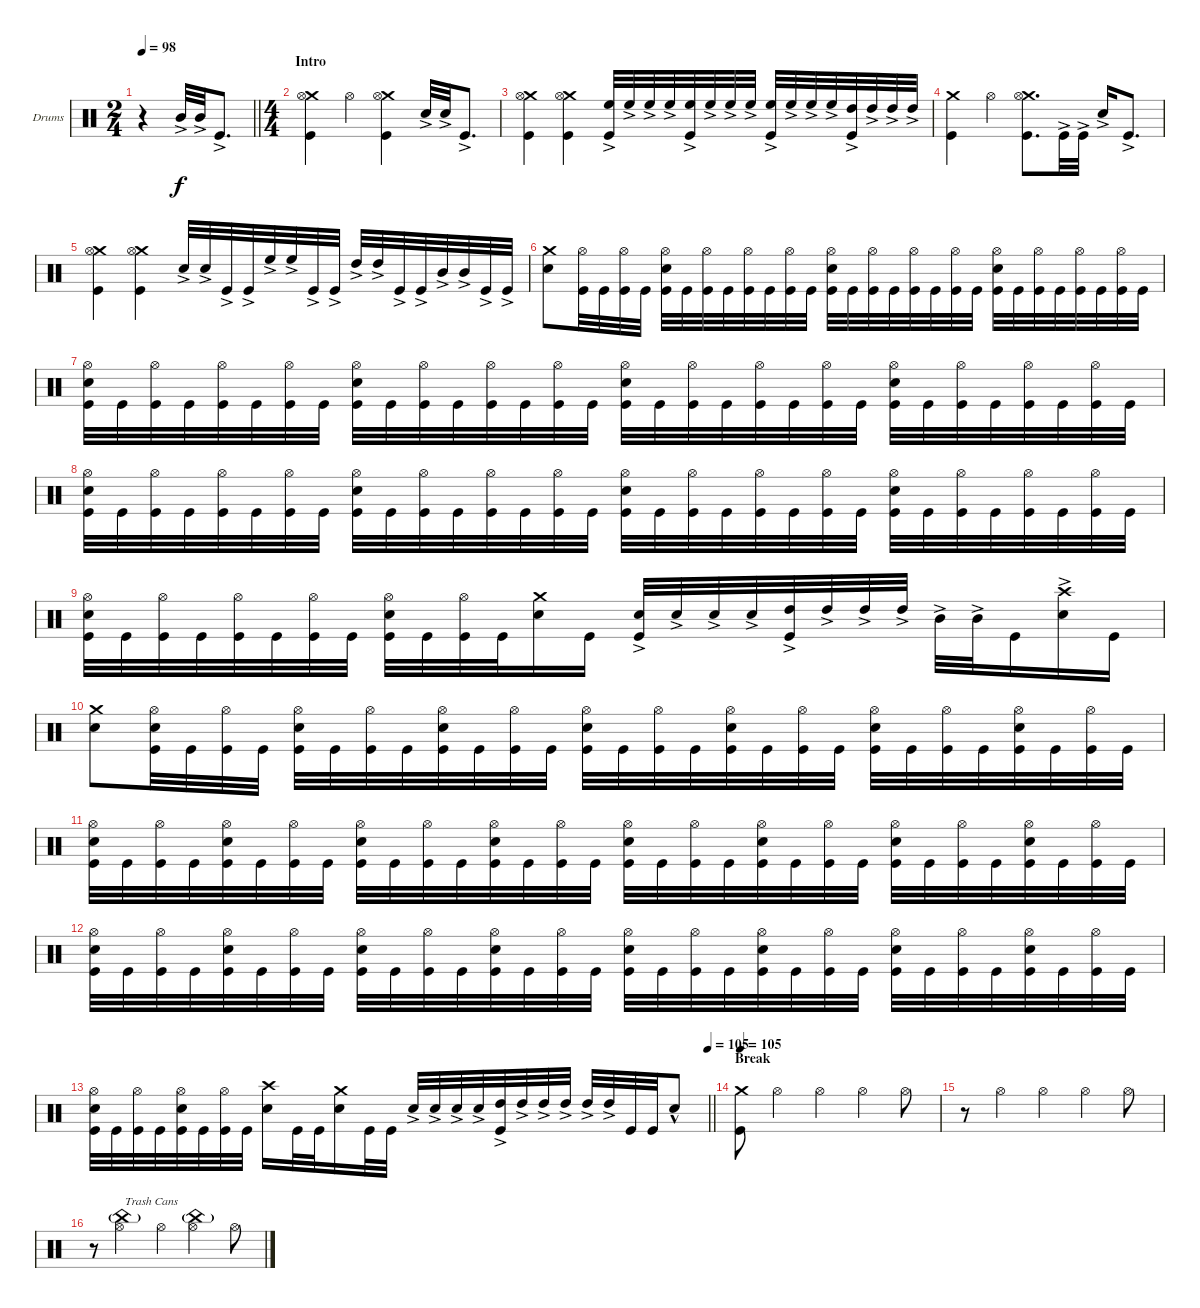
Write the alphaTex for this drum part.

\bracketExtendMode groupsimilarinstruments
\firstSystemTrackNameOrientation horizontal
\otherSystemsTrackNameOrientation horizontal
\track ("Drumkit" "Drums") {instrument percussion}
\staff {score}
\articulation defaults
\ts (2 4)
\beaming (8 2 2)
\tempo 98
\clef neutral
\barLineRight lightlight
\ks c
r.4{dy f} "Mid Tom (hit)"{ac}.32 "Mid Tom (hit)"{ac}.32 "Kick (hit)"{ac}.8{d} |
\ts (4 4)
\beaming (8 2 2 2 2)
\section ("" "Intro")
("Crash medium (hit)" "Hi-Hat (open)" "Kick (hit)").4 "Hi-Hat (open)".4 ("Crash medium (hit)" "Hi-Hat (open)" "Kick (hit)").4 "Snare (hit) 2"{ac}.32 "Snare (hit) 2"{ac}.32 "Kick (hit)"{ac}.8{d} |
("Crash medium (hit)" "Hi-Hat (open)" "Kick (hit)").4 ("Crash medium (hit)" "Hi-Hat (open)" "Kick (hit)").4 ("High Floor Tom (hit)"{ac} "Kick (hit)").32 "High Floor Tom (hit)"{ac}.32 "High Floor Tom (hit)"{ac}.32 "High Floor Tom (hit)"{ac}.32 ("High Floor Tom (hit)"{ac} "Kick (hit)").32 "High Floor Tom (hit)"{ac}.32 "High Floor Tom (hit)"{ac}.32 "High Floor Tom (hit)"{ac}.32 ("High Floor Tom (hit)"{ac} "Kick (hit)").32 "High Floor Tom (hit)"{ac}.32 "High Floor Tom (hit)"{ac}.32 "High Floor Tom (hit)"{ac}.32 ("High Tom (hit)"{ac} "Kick (hit)").32 "High Tom (hit)"{ac}.32 "High Tom (hit)"{ac}.32 "High Tom (hit)"{ac}.32 |
("Crash medium (hit)" "Kick (hit)").4 "Hi-Hat (open)".4 ("Crash medium (hit)" "Hi-Hat (open)" "Kick (hit)").8{d} "Kick (hit)"{ac}.32 "Kick (hit)"{ac}.32 "Snare (hit) 2"{ac}.16 "Kick (hit)"{ac}.8{d} |
("Crash medium (hit)" "Hi-Hat (open)" "Kick (hit)").4 ("Crash medium (hit)" "Hi-Hat (open)" "Kick (hit)").4 "Snare (hit) 2"{ac}.32 "Snare (hit) 2"{ac}.32 "Kick (hit)"{ac}.32 "Kick (hit)"{ac}.32 "High Floor Tom (hit)"{ac}.32 "High Floor Tom (hit)"{ac}.32 "Kick (hit)"{ac}.32 "Kick (hit)"{ac}.32 "High Tom (hit)"{ac}.32 "High Tom (hit)"{ac}.32 "Kick (hit)"{ac}.32 "Kick (hit)"{ac}.32 "Mid Tom (hit)"{ac}.32 "Mid Tom (hit)"{ac}.32 "Kick (hit)"{ac}.32 "Kick (hit)"{ac}.32 |
("Crash medium (hit)" "Snare (hit) 2").8 ("Hi-Hat (open)" "Kick (hit)").32 "Kick (hit)".32 ("Hi-Hat (open)" "Kick (hit)").32 "Kick (hit)".32 ("Hi-Hat (open)" "Snare (hit) 2" "Kick (hit)").32 "Kick (hit)".32 ("Hi-Hat (open)" "Kick (hit)").32 "Kick (hit)".32 ("Hi-Hat (open)" "Kick (hit)").32 "Kick (hit)".32 ("Hi-Hat (open)" "Kick (hit)").32 "Kick (hit)".32 ("Hi-Hat (open)" "Snare (hit) 2" "Kick (hit)").32 "Kick (hit)".32 ("Hi-Hat (open)" "Kick (hit)").32 "Kick (hit)".32 ("Hi-Hat (open)" "Kick (hit)").32 "Kick (hit)".32 ("Hi-Hat (open)" "Kick (hit)").32 "Kick (hit)".32 ("Hi-Hat (open)" "Snare (hit) 2" "Kick (hit)").32 "Kick (hit)".32 ("Hi-Hat (open)" "Kick (hit)").32 "Kick (hit)".32 ("Hi-Hat (open)" "Kick (hit)").32 "Kick (hit)".32 ("Hi-Hat (open)" "Kick (hit)").32 "Kick (hit)".32 |
("Hi-Hat (open)" "Snare (hit) 2" "Kick (hit)").32 "Kick (hit)".32 ("Hi-Hat (open)" "Kick (hit)").32 "Kick (hit)".32 ("Hi-Hat (open)" "Kick (hit)").32 "Kick (hit)".32 ("Hi-Hat (open)" "Kick (hit)").32 "Kick (hit)".32 ("Hi-Hat (open)" "Snare (hit) 2" "Kick (hit)").32 "Kick (hit)".32 ("Hi-Hat (open)" "Kick (hit)").32 "Kick (hit)".32 ("Hi-Hat (open)" "Kick (hit)").32 "Kick (hit)".32 ("Hi-Hat (open)" "Kick (hit)").32 "Kick (hit)".32 ("Hi-Hat (open)" "Snare (hit) 2" "Kick (hit)").32 "Kick (hit)".32 ("Hi-Hat (open)" "Kick (hit)").32 "Kick (hit)".32 ("Hi-Hat (open)" "Kick (hit)").32 "Kick (hit)".32 ("Hi-Hat (open)" "Kick (hit)").32 "Kick (hit)".32 ("Hi-Hat (open)" "Snare (hit) 2" "Kick (hit)").32 "Kick (hit)".32 ("Hi-Hat (open)" "Kick (hit)").32 "Kick (hit)".32 ("Hi-Hat (open)" "Kick (hit)").32 "Kick (hit)".32 ("Hi-Hat (open)" "Kick (hit)").32 "Kick (hit)".32 |
("Hi-Hat (open)" "Snare (hit) 2" "Kick (hit)").32 "Kick (hit)".32 ("Hi-Hat (open)" "Kick (hit)").32 "Kick (hit)".32 ("Hi-Hat (open)" "Kick (hit)").32 "Kick (hit)".32 ("Hi-Hat (open)" "Kick (hit)").32 "Kick (hit)".32 ("Hi-Hat (open)" "Snare (hit) 2" "Kick (hit)").32 "Kick (hit)".32 ("Hi-Hat (open)" "Kick (hit)").32 "Kick (hit)".32 ("Hi-Hat (open)" "Kick (hit)").32 "Kick (hit)".32 ("Hi-Hat (open)" "Kick (hit)").32 "Kick (hit)".32 ("Hi-Hat (open)" "Snare (hit) 2" "Kick (hit)").32 "Kick (hit)".32 ("Hi-Hat (open)" "Kick (hit)").32 "Kick (hit)".32 ("Hi-Hat (open)" "Kick (hit)").32 "Kick (hit)".32 ("Hi-Hat (open)" "Kick (hit)").32 "Kick (hit)".32 ("Hi-Hat (open)" "Snare (hit) 2" "Kick (hit)").32 "Kick (hit)".32 ("Hi-Hat (open)" "Kick (hit)").32 "Kick (hit)".32 ("Hi-Hat (open)" "Kick (hit)").32 "Kick (hit)".32 ("Hi-Hat (open)" "Kick (hit)").32 "Kick (hit)".32 |
("Hi-Hat (open)" "Snare (hit) 2" "Kick (hit)").32 "Kick (hit)".32 ("Hi-Hat (open)" "Kick (hit)").32 "Kick (hit)".32 ("Hi-Hat (open)" "Kick (hit)").32 "Kick (hit)".32 ("Hi-Hat (open)" "Kick (hit)").32 "Kick (hit)".32 ("Hi-Hat (open)" "Snare (hit) 2" "Kick (hit)").32 "Kick (hit)".32 ("Hi-Hat (open)" "Kick (hit)").32 "Kick (hit)".32 ("Crash medium (hit)" "Snare (hit) 2").16 "Kick (hit)".16 ("Snare (hit) 2"{ac} "Kick (hit)").32 "Snare (hit) 2"{ac}.32 "Snare (hit) 2"{ac}.32 "Snare (hit) 2"{ac}.32 ("High Tom (hit)"{ac} "Kick (hit)").32 "High Tom (hit)"{ac}.32 "High Tom (hit)"{ac}.32 "High Tom (hit)"{ac}.32 "Mid Tom (hit)"{ac}.32 "Mid Tom (hit)"{ac}.32 "Kick (hit)".16 ("Crash high (hit)" "Snare (hit) 2"{ac}).16 "Kick (hit)".16 |
("Crash medium (hit)" "Snare (hit) 2").8 ("Hi-Hat (open)" "Snare (hit) 2" "Kick (hit)").32 "Kick (hit)".32 ("Hi-Hat (open)" "Kick (hit)").32 "Kick (hit)".32 ("Hi-Hat (open)" "Snare (hit) 2" "Kick (hit)").32 "Kick (hit)".32 ("Hi-Hat (open)" "Kick (hit)").32 "Kick (hit)".32 ("Hi-Hat (open)" "Snare (hit) 2" "Kick (hit)").32 "Kick (hit)".32 ("Hi-Hat (open)" "Kick (hit)").32 "Kick (hit)".32 ("Hi-Hat (open)" "Snare (hit) 2" "Kick (hit)").32 "Kick (hit)".32 ("Hi-Hat (open)" "Kick (hit)").32 "Kick (hit)".32 ("Hi-Hat (open)" "Snare (hit) 2" "Kick (hit)").32 "Kick (hit)".32 ("Hi-Hat (open)" "Kick (hit)").32 "Kick (hit)".32 ("Hi-Hat (open)" "Snare (hit) 2" "Kick (hit)").32 "Kick (hit)".32 ("Hi-Hat (open)" "Kick (hit)").32 "Kick (hit)".32 ("Hi-Hat (open)" "Snare (hit) 2" "Kick (hit)").32 "Kick (hit)".32 ("Hi-Hat (open)" "Kick (hit)").32 "Kick (hit)".32 |
("Hi-Hat (open)" "Snare (hit) 2" "Kick (hit)").32 "Kick (hit)".32 ("Hi-Hat (open)" "Kick (hit)").32 "Kick (hit)".32 ("Hi-Hat (open)" "Snare (hit) 2" "Kick (hit)").32 "Kick (hit)".32 ("Hi-Hat (open)" "Kick (hit)").32 "Kick (hit)".32 ("Hi-Hat (open)" "Snare (hit) 2" "Kick (hit)").32 "Kick (hit)".32 ("Hi-Hat (open)" "Kick (hit)").32 "Kick (hit)".32 ("Hi-Hat (open)" "Snare (hit) 2" "Kick (hit)").32 "Kick (hit)".32 ("Hi-Hat (open)" "Kick (hit)").32 "Kick (hit)".32 ("Hi-Hat (open)" "Snare (hit) 2" "Kick (hit)").32 "Kick (hit)".32 ("Hi-Hat (open)" "Kick (hit)").32 "Kick (hit)".32 ("Hi-Hat (open)" "Snare (hit) 2" "Kick (hit)").32 "Kick (hit)".32 ("Hi-Hat (open)" "Kick (hit)").32 "Kick (hit)".32 ("Hi-Hat (open)" "Snare (hit) 2" "Kick (hit)").32 "Kick (hit)".32 ("Hi-Hat (open)" "Kick (hit)").32 "Kick (hit)".32 ("Hi-Hat (open)" "Snare (hit) 2" "Kick (hit)").32 "Kick (hit)".32 ("Hi-Hat (open)" "Kick (hit)").32 "Kick (hit)".32 |
("Hi-Hat (open)" "Snare (hit) 2" "Kick (hit)").32 "Kick (hit)".32 ("Hi-Hat (open)" "Kick (hit)").32 "Kick (hit)".32 ("Hi-Hat (open)" "Snare (hit) 2" "Kick (hit)").32 "Kick (hit)".32 ("Hi-Hat (open)" "Kick (hit)").32 "Kick (hit)".32 ("Hi-Hat (open)" "Snare (hit) 2" "Kick (hit)").32 "Kick (hit)".32 ("Hi-Hat (open)" "Kick (hit)").32 "Kick (hit)".32 ("Hi-Hat (open)" "Snare (hit) 2" "Kick (hit)").32 "Kick (hit)".32 ("Hi-Hat (open)" "Kick (hit)").32 "Kick (hit)".32 ("Hi-Hat (open)" "Snare (hit) 2" "Kick (hit)").32 "Kick (hit)".32 ("Hi-Hat (open)" "Kick (hit)").32 "Kick (hit)".32 ("Hi-Hat (open)" "Snare (hit) 2" "Kick (hit)").32 "Kick (hit)".32 ("Hi-Hat (open)" "Kick (hit)").32 "Kick (hit)".32 ("Hi-Hat (open)" "Snare (hit) 2" "Kick (hit)").32 "Kick (hit)".32 ("Hi-Hat (open)" "Kick (hit)").32 "Kick (hit)".32 ("Hi-Hat (open)" "Snare (hit) 2" "Kick (hit)").32 "Kick (hit)".32 ("Hi-Hat (open)" "Kick (hit)").32 "Kick (hit)".32 |
\tempo (105 1)
\barLineRight lightlight
("Hi-Hat (open)" "Snare (hit) 2" "Kick (hit)").32 "Kick (hit)".32 ("Hi-Hat (open)" "Kick (hit)").32 "Kick (hit)".32 ("Hi-Hat (open)" "Snare (hit) 2" "Kick (hit)").32 "Kick (hit)".32 ("Hi-Hat (open)" "Kick (hit)").32 "Kick (hit)".32 ("Crash high (hit)" "Snare (hit) 2").16 "Kick (hit)".32 "Kick (hit)".32 ("Crash medium (hit)" "Snare (hit) 2").16 "Kick (hit)".32 "Kick (hit)".32 "Snare (hit) 2"{ac}.32 "Snare (hit) 2"{ac}.32 "Snare (hit) 2"{ac}.32 "Snare (hit) 2"{ac}.32 ("High Tom (hit)"{ac} "Kick (hit)").32 "High Tom (hit)"{ac}.32 "High Tom (hit)"{ac}.32 "High Tom (hit)"{ac}.32 "High Tom (hit)"{ac}.32 "High Tom (hit)"{ac}.32 "Kick (hit)".32 "Kick (hit)".32 "Snare (hit) 2"{hac}.8 |
\section ("" "Break")
\tempo 105
("Crash medium (hit)" "Kick (hit)").8 "Hi-Hat (open)".4 "Hi-Hat (open)".4 "Hi-Hat (open)".4 "Hi-Hat (open)".8 |
r.8 "Hi-Hat (open)".4 "Hi-Hat (open)".4 "Hi-Hat (open)".4 "Hi-Hat (open)".8 |
r.8 ("China (hit)"{g} "Hi-Hat (open)").4{txt "Trash Cans"} "Hi-Hat (open)".4 ("China (hit)"{g} "Hi-Hat (open)").4 "Hi-Hat (open)".8
